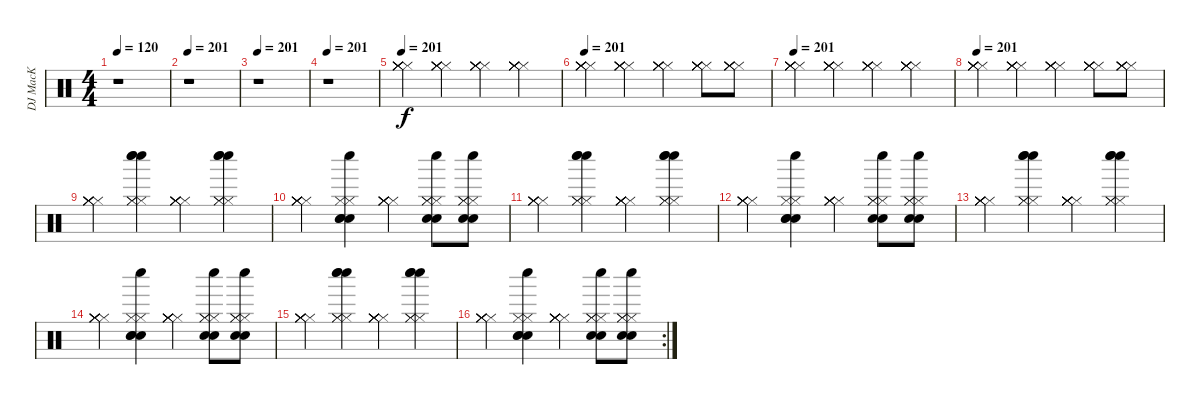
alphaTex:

\track ("DJ MacK" "DJ MacK") {instrument percussion}
\staff {score}
\articulation defaults
\ts (4 4)
\tempo 120
\tempo 201
\tempo 120
\clef neutral
\ks c
r.1{dy f} |
\tempo 201
r.1 |
\tempo 201
r.1 |
\tempo 201
r.1 |
\tempo 201
("Hi-Hat (closed)" "Hi-Hat (closed)" "Hi-Hat (closed)" "Hi-Hat (closed)" "Hi-Hat (closed)" "Hi-Hat (closed)").4 ("Hi-Hat (closed)" "Hi-Hat (closed)" "Hi-Hat (closed)" "Hi-Hat (closed)" "Hi-Hat (closed)" "Hi-Hat (closed)").4 ("Hi-Hat (closed)" "Hi-Hat (closed)" "Hi-Hat (closed)" "Hi-Hat (closed)" "Hi-Hat (closed)" "Hi-Hat (closed)").4 ("Hi-Hat (closed)" "Hi-Hat (closed)" "Hi-Hat (closed)" "Hi-Hat (closed)" "Hi-Hat (closed)" "Hi-Hat (closed)").4 |
\tempo 201
("Hi-Hat (closed)" "Hi-Hat (closed)" "Hi-Hat (closed)" "Hi-Hat (closed)" "Hi-Hat (closed)" "Hi-Hat (closed)").4 ("Hi-Hat (closed)" "Hi-Hat (closed)" "Hi-Hat (closed)" "Hi-Hat (closed)" "Hi-Hat (closed)" "Hi-Hat (closed)").4 ("Hi-Hat (closed)" "Hi-Hat (closed)" "Hi-Hat (closed)" "Hi-Hat (closed)" "Hi-Hat (closed)" "Hi-Hat (closed)").4 ("Hi-Hat (closed)" "Hi-Hat (closed)" "Hi-Hat (closed)" "Hi-Hat (closed)" "Hi-Hat (closed)" "Hi-Hat (closed)").8 ("Hi-Hat (closed)" "Hi-Hat (closed)" "Hi-Hat (closed)" "Hi-Hat (closed)" "Hi-Hat (closed)" "Hi-Hat (closed)").8 |
\tempo 201
("Hi-Hat (closed)" "Hi-Hat (closed)" "Hi-Hat (closed)" "Hi-Hat (closed)" "Hi-Hat (closed)" "Hi-Hat (closed)").4 ("Hi-Hat (closed)" "Hi-Hat (closed)" "Hi-Hat (closed)" "Hi-Hat (closed)" "Hi-Hat (closed)" "Hi-Hat (closed)").4 ("Hi-Hat (closed)" "Hi-Hat (closed)" "Hi-Hat (closed)" "Hi-Hat (closed)" "Hi-Hat (closed)" "Hi-Hat (closed)").4 ("Hi-Hat (closed)" "Hi-Hat (closed)" "Hi-Hat (closed)" "Hi-Hat (closed)" "Hi-Hat (closed)" "Hi-Hat (closed)").4 |
\tempo 201
("Hi-Hat (closed)" "Hi-Hat (closed)" "Hi-Hat (closed)" "Hi-Hat (closed)" "Hi-Hat (closed)" "Hi-Hat (closed)").4 ("Hi-Hat (closed)" "Hi-Hat (closed)" "Hi-Hat (closed)" "Hi-Hat (closed)" "Hi-Hat (closed)" "Hi-Hat (closed)").4 ("Hi-Hat (closed)" "Hi-Hat (closed)" "Hi-Hat (closed)" "Hi-Hat (closed)" "Hi-Hat (closed)" "Hi-Hat (closed)").4 ("Hi-Hat (closed)" "Hi-Hat (closed)" "Hi-Hat (closed)" "Hi-Hat (closed)" "Hi-Hat (closed)" "Hi-Hat (closed)").8 ("Hi-Hat (closed)" "Hi-Hat (closed)" "Hi-Hat (closed)" "Hi-Hat (closed)" "Hi-Hat (closed)" "Hi-Hat (closed)").8 |
("Hi-Hat (closed)" "Hi-Hat (closed)" "Hi-Hat (closed)" "Hi-Hat (closed)" "Hi-Hat (closed)" "Hi-Hat (closed)").4 ("Whistle low (hit)" "Whistle low (hit)" "Whistle low (hit)" "Hi-Hat (closed)" "Hi-Hat (closed)" "Hi-Hat (closed)").4 ("Hi-Hat (closed)" "Hi-Hat (closed)" "Hi-Hat (closed)" "Hi-Hat (closed)" "Hi-Hat (closed)" "Hi-Hat (closed)").4 ("Whistle low (hit)" "Whistle low (hit)" "Whistle low (hit)" "Hi-Hat (closed)" "Hi-Hat (closed)" "Hi-Hat (closed)").4 |
("Hi-Hat (closed)" "Hi-Hat (closed)" "Hi-Hat (closed)" "Hi-Hat (closed)" "Hi-Hat (closed)" "Hi-Hat (closed)").4 ("Whistle low (hit)" "Snare (hit)" "Snare (hit)" "Snare (hit)" "Hi-Hat (closed)" "Hi-Hat (closed)").4 ("Hi-Hat (closed)" "Hi-Hat (closed)" "Hi-Hat (closed)" "Hi-Hat (closed)" "Hi-Hat (closed)" "Hi-Hat (closed)").4 ("Whistle low (hit)" "Snare (hit)" "Snare (hit)" "Hi-Hat (closed)" "Hi-Hat (closed)" "Hi-Hat (closed)").8 ("Snare (hit)" "Whistle low (hit)" "Snare (hit)" "Hi-Hat (closed)" "Hi-Hat (closed)" "Hi-Hat (closed)").8 |
("Hi-Hat (closed)" "Hi-Hat (closed)" "Hi-Hat (closed)" "Hi-Hat (closed)" "Hi-Hat (closed)" "Hi-Hat (closed)").4 ("Whistle low (hit)" "Whistle low (hit)" "Whistle low (hit)" "Hi-Hat (closed)" "Hi-Hat (closed)" "Hi-Hat (closed)").4 ("Hi-Hat (closed)" "Hi-Hat (closed)" "Hi-Hat (closed)" "Hi-Hat (closed)" "Hi-Hat (closed)" "Hi-Hat (closed)").4 ("Whistle low (hit)" "Whistle low (hit)" "Whistle low (hit)" "Hi-Hat (closed)" "Hi-Hat (closed)" "Hi-Hat (closed)").4 |
("Hi-Hat (closed)" "Hi-Hat (closed)" "Hi-Hat (closed)" "Hi-Hat (closed)" "Hi-Hat (closed)" "Hi-Hat (closed)").4 ("Whistle low (hit)" "Snare (hit)" "Snare (hit)" "Snare (hit)" "Hi-Hat (closed)" "Hi-Hat (closed)").4 ("Hi-Hat (closed)" "Hi-Hat (closed)" "Hi-Hat (closed)" "Hi-Hat (closed)" "Hi-Hat (closed)" "Hi-Hat (closed)").4 ("Whistle low (hit)" "Snare (hit)" "Snare (hit)" "Hi-Hat (closed)" "Hi-Hat (closed)" "Hi-Hat (closed)").8 ("Snare (hit)" "Whistle low (hit)" "Snare (hit)" "Hi-Hat (closed)" "Hi-Hat (closed)" "Hi-Hat (closed)").8 |
("Hi-Hat (closed)" "Hi-Hat (closed)" "Hi-Hat (closed)" "Hi-Hat (closed)" "Hi-Hat (closed)" "Hi-Hat (closed)").4 ("Whistle low (hit)" "Whistle low (hit)" "Whistle low (hit)" "Hi-Hat (closed)" "Hi-Hat (closed)" "Hi-Hat (closed)").4 ("Hi-Hat (closed)" "Hi-Hat (closed)" "Hi-Hat (closed)" "Hi-Hat (closed)" "Hi-Hat (closed)" "Hi-Hat (closed)").4 ("Whistle low (hit)" "Whistle low (hit)" "Whistle low (hit)" "Hi-Hat (closed)" "Hi-Hat (closed)" "Hi-Hat (closed)").4 |
("Hi-Hat (closed)" "Hi-Hat (closed)" "Hi-Hat (closed)" "Hi-Hat (closed)" "Hi-Hat (closed)" "Hi-Hat (closed)").4 ("Whistle low (hit)" "Snare (hit)" "Snare (hit)" "Snare (hit)" "Hi-Hat (closed)" "Hi-Hat (closed)").4 ("Hi-Hat (closed)" "Hi-Hat (closed)" "Hi-Hat (closed)" "Hi-Hat (closed)" "Hi-Hat (closed)" "Hi-Hat (closed)").4 ("Whistle low (hit)" "Snare (hit)" "Snare (hit)" "Hi-Hat (closed)" "Hi-Hat (closed)" "Hi-Hat (closed)").8 ("Snare (hit)" "Whistle low (hit)" "Snare (hit)" "Hi-Hat (closed)" "Hi-Hat (closed)" "Hi-Hat (closed)").8 |
("Hi-Hat (closed)" "Hi-Hat (closed)" "Hi-Hat (closed)" "Hi-Hat (closed)" "Hi-Hat (closed)" "Hi-Hat (closed)").4 ("Whistle low (hit)" "Whistle low (hit)" "Whistle low (hit)" "Hi-Hat (closed)" "Hi-Hat (closed)" "Hi-Hat (closed)").4 ("Hi-Hat (closed)" "Hi-Hat (closed)" "Hi-Hat (closed)" "Hi-Hat (closed)" "Hi-Hat (closed)" "Hi-Hat (closed)").4 ("Whistle low (hit)" "Whistle low (hit)" "Whistle low (hit)" "Hi-Hat (closed)" "Hi-Hat (closed)" "Hi-Hat (closed)").4 |
\rc 2
("Hi-Hat (closed)" "Hi-Hat (closed)" "Hi-Hat (closed)" "Hi-Hat (closed)" "Hi-Hat (closed)" "Hi-Hat (closed)").4 ("Whistle low (hit)" "Snare (hit)" "Snare (hit)" "Snare (hit)" "Hi-Hat (closed)" "Hi-Hat (closed)").4 ("Hi-Hat (closed)" "Hi-Hat (closed)" "Hi-Hat (closed)" "Hi-Hat (closed)" "Hi-Hat (closed)" "Hi-Hat (closed)").4 ("Whistle low (hit)" "Snare (hit)" "Snare (hit)" "Hi-Hat (closed)" "Hi-Hat (closed)" "Hi-Hat (closed)").8 ("Snare (hit)" "Whistle low (hit)" "Snare (hit)" "Hi-Hat (closed)" "Hi-Hat (closed)" "Hi-Hat (closed)").8
